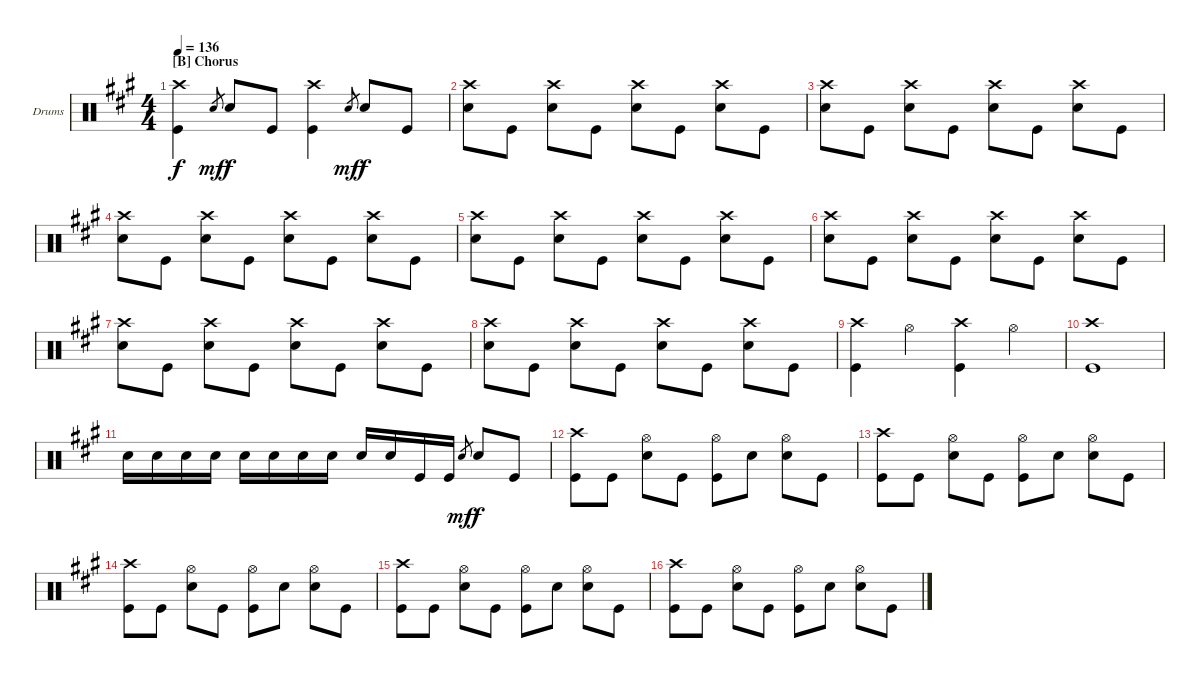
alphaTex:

\defaultSystemsLayout 4
\bracketExtendMode groupsimilarinstruments
\firstSystemTrackNameOrientation horizontal
\otherSystemsTrackNameOrientation horizontal
\track ("Drumkit" "Drums") {instrument percussion}
\staff {score}
\articulation defaults
\ts (4 4)
\section ("B" "Chorus")
\tempo 136
\clef neutral
\scale
1.05801
\ks a
("Kick (hit)" "Crash high (hit)").4{dy f} "Snare (hit) 2".8{gr dy mf} "Snare (hit) 2".8{dy f} "Kick (hit)".8 ("Kick (hit)" "Crash high (hit)").4 "Snare (hit) 2".8{gr dy mf} "Snare (hit) 2".8{dy f} "Kick (hit)".8 |
\scale
0.941992 ("Snare (hit) 2" "Crash high (hit)").8 "Kick (hit)".8 ("Snare (hit) 2" "Crash high (hit)").8 "Kick (hit)".8 ("Snare (hit) 2" "Crash high (hit)").8 "Kick (hit)".8 ("Snare (hit) 2" "Crash high (hit)").8 "Kick (hit)".8 |
\scale
1.05801 ("Snare (hit) 2" "Crash high (hit)").8 "Kick (hit)".8 ("Snare (hit) 2" "Crash high (hit)").8 "Kick (hit)".8 ("Snare (hit) 2" "Crash high (hit)").8 "Kick (hit)".8 ("Snare (hit) 2" "Crash high (hit)").8 "Kick (hit)".8 |
\scale
0.941992 ("Snare (hit) 2" "Crash high (hit)").8 "Kick (hit)".8 ("Snare (hit) 2" "Crash high (hit)").8 "Kick (hit)".8 ("Snare (hit) 2" "Crash high (hit)").8 "Kick (hit)".8 ("Snare (hit) 2" "Crash high (hit)").8 "Kick (hit)".8 |
\scale
1.05801 ("Snare (hit) 2" "Crash high (hit)").8 "Kick (hit)".8 ("Snare (hit) 2" "Crash high (hit)").8 "Kick (hit)".8 ("Snare (hit) 2" "Crash high (hit)").8 "Kick (hit)".8 ("Snare (hit) 2" "Crash high (hit)").8 "Kick (hit)".8 |
\scale
0.941992 ("Snare (hit) 2" "Crash high (hit)").8 "Kick (hit)".8 ("Snare (hit) 2" "Crash high (hit)").8 "Kick (hit)".8 ("Snare (hit) 2" "Crash high (hit)").8 "Kick (hit)".8 ("Snare (hit) 2" "Crash high (hit)").8 "Kick (hit)".8 |
\scale
1.05801 ("Snare (hit) 2" "Crash high (hit)").8 "Kick (hit)".8 ("Snare (hit) 2" "Crash high (hit)").8 "Kick (hit)".8 ("Snare (hit) 2" "Crash high (hit)").8 "Kick (hit)".8 ("Snare (hit) 2" "Crash high (hit)").8 "Kick (hit)".8 |
\scale
0.941992 ("Snare (hit) 2" "Crash high (hit)").8 "Kick (hit)".8 ("Snare (hit) 2" "Crash high (hit)").8 "Kick (hit)".8 ("Snare (hit) 2" "Crash high (hit)").8 "Kick (hit)".8 ("Snare (hit) 2" "Crash high (hit)").8 "Kick (hit)".8 |
\scale
1.05801 ("Kick (hit)" "Crash high (hit)").4 "Hi-Hat (open)".4 ("Kick (hit)" "Crash high (hit)").4 "Hi-Hat (open)".4 |
\scale
0.941992 ("Kick (hit)" "Crash high (hit)").1 |
\scale
1.05801 "Snare (hit) 2".16 "Snare (hit) 2".16 "Snare (hit) 2".16 "Snare (hit) 2".16 "Snare (hit) 2".16 "Snare (hit) 2".16 "Snare (hit) 2".16 "Snare (hit) 2".16 "Snare (hit) 2".16 "Snare (hit) 2".16 "Kick (hit)".16 "Kick (hit)".16 "Snare (hit) 2".8{gr dy mf} "Snare (hit) 2".8{dy f} "Kick (hit)".8 |
\scale
0.941992 ("Crash high (hit)" "Kick (hit)").8 "Kick (hit)".8 ("Hi-Hat (open)" "Snare (hit) 2").8 "Kick (hit)".8 ("Hi-Hat (open)" "Kick (hit)").8 "Snare (hit) 2".8 ("Hi-Hat (open)" "Snare (hit) 2").8 "Kick (hit)".8 |
\scale
1.05801 ("Crash high (hit)" "Kick (hit)").8 "Kick (hit)".8 ("Hi-Hat (open)" "Snare (hit) 2").8 "Kick (hit)".8 ("Hi-Hat (open)" "Kick (hit)").8 "Snare (hit) 2".8 ("Hi-Hat (open)" "Snare (hit) 2").8 "Kick (hit)".8 |
\scale
0.941992 ("Crash high (hit)" "Kick (hit)").8 "Kick (hit)".8 ("Hi-Hat (open)" "Snare (hit) 2").8 "Kick (hit)".8 ("Hi-Hat (open)" "Kick (hit)").8 "Snare (hit) 2".8 ("Hi-Hat (open)" "Snare (hit) 2").8 "Kick (hit)".8 |
\scale
1.05801 ("Crash high (hit)" "Kick (hit)").8 "Kick (hit)".8 ("Hi-Hat (open)" "Snare (hit) 2").8 "Kick (hit)".8 ("Hi-Hat (open)" "Kick (hit)").8 "Snare (hit) 2".8 ("Hi-Hat (open)" "Snare (hit) 2").8 "Kick (hit)".8 |
\scale
0.941992 ("Crash high (hit)" "Kick (hit)").8 "Kick (hit)".8 ("Hi-Hat (open)" "Snare (hit) 2").8 "Kick (hit)".8 ("Hi-Hat (open)" "Kick (hit)").8 "Snare (hit) 2".8 ("Hi-Hat (open)" "Snare (hit) 2").8 "Kick (hit)".8
